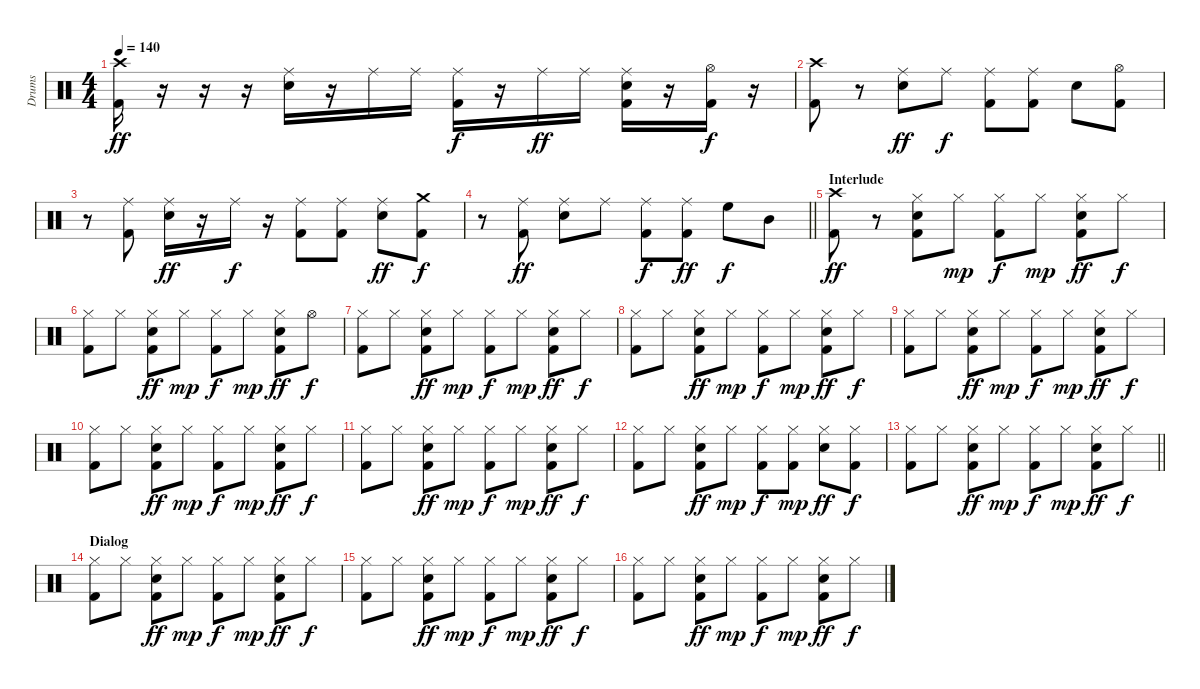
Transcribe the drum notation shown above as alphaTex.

\track ("Drums" "Drums") {instrument percussion}
\staff {score}
\articulation defaults
\ts (4 4)
\tempo 140
\clef neutral
\ks c
("Crash high (hit)" "Kick (hit) 2").16{dy ff} r.16 r.16 r.16 ("Ride (middle)" "Electric Snare (hit)").16 r.16 "Ride (middle)".16 "Ride (middle)".16 ("Ride (middle)" "Kick (hit) 2").16{dy f} r.16 "Ride (middle)".16{dy ff} "Ride (middle)".16 ("Ride (middle)" "Electric Snare (hit)" "Kick (hit) 2").16 r.16 ("Hi-Hat (open)" "Kick (hit) 2").16{dy f} r.16 |
("Crash high (hit)" "Kick (hit) 2").8 r.8 ("Ride (middle)" "Electric Snare (hit)").8{dy ff} "Ride (middle)".8{dy f} ("Ride (middle)" "Kick (hit) 2").8 ("Ride (middle)" "Kick (hit) 2").8 "Electric Snare (hit)".8 ("Hi-Hat (open)" "Kick (hit) 2").8 |
r.8 ("Ride (middle)" "Kick (hit) 2").8 ("Ride (middle)" "Electric Snare (hit)").16{dy ff} r.16 "Ride (middle)".16{dy f} r.16 ("Ride (middle)" "Kick (hit) 2").8 ("Ride (middle)" "Kick (hit) 2").8 ("Ride (middle)" "Electric Snare (hit)").8{dy ff} ("Crash medium (hit)" "Kick (hit) 2").8{dy f} |
\barLineRight lightlight
r.8 ("Ride (middle)" "Kick (hit) 2").8{dy ff} ("Ride (middle)" "Electric Snare (hit)").8 "Ride (middle)".8 ("Ride (middle)" "Kick (hit) 2").8{dy f} ("Ride (middle)" "Kick (hit) 2").8{dy ff} "High Floor Tom (hit)".8{dy f} "Mid Tom (hit)".8 |
\section ("" "Interlude")
("Crash high (hit)" "Kick (hit) 2").8{dy ff} r.8 ("Hi-Hat (closed)" "Electric Snare (hit)" "Kick (hit) 2").8 "Hi-Hat (closed)".8{dy mp} ("Hi-Hat (closed)" "Kick (hit) 2").8{dy f} "Hi-Hat (closed)".8{dy mp} ("Hi-Hat (closed)" "Electric Snare (hit)" "Kick (hit) 2").8{dy ff} "Hi-Hat (closed)".8{dy f} |
("Hi-Hat (closed)" "Kick (hit) 2").8 "Hi-Hat (closed)".8 ("Hi-Hat (closed)" "Electric Snare (hit)" "Kick (hit) 2").8{dy ff} "Hi-Hat (closed)".8{dy mp} ("Hi-Hat (closed)" "Kick (hit) 2").8{dy f} "Hi-Hat (closed)".8{dy mp} ("Hi-Hat (closed)" "Electric Snare (hit)" "Kick (hit) 2").8{dy ff} "Hi-Hat (open)".8{dy f} |
("Hi-Hat (closed)" "Kick (hit) 2").8 "Hi-Hat (closed)".8 ("Hi-Hat (closed)" "Electric Snare (hit)" "Kick (hit) 2").8{dy ff} "Hi-Hat (closed)".8{dy mp} ("Hi-Hat (closed)" "Kick (hit) 2").8{dy f} "Hi-Hat (closed)".8{dy mp} ("Hi-Hat (closed)" "Electric Snare (hit)" "Kick (hit) 2").8{dy ff} "Hi-Hat (closed)".8{dy f} |
("Hi-Hat (closed)" "Kick (hit) 2").8 "Hi-Hat (closed)".8 ("Hi-Hat (closed)" "Electric Snare (hit)" "Kick (hit) 2").8{dy ff} "Hi-Hat (closed)".8{dy mp} ("Hi-Hat (closed)" "Kick (hit) 2").8{dy f} "Hi-Hat (closed)".8{dy mp} ("Hi-Hat (closed)" "Electric Snare (hit)" "Kick (hit) 2").8{dy ff} "Hi-Hat (closed)".8{dy f} |
("Hi-Hat (closed)" "Kick (hit) 2").8 "Hi-Hat (closed)".8 ("Hi-Hat (closed)" "Electric Snare (hit)" "Kick (hit) 2").8{dy ff} "Hi-Hat (closed)".8{dy mp} ("Hi-Hat (closed)" "Kick (hit) 2").8{dy f} "Hi-Hat (closed)".8{dy mp} ("Hi-Hat (closed)" "Electric Snare (hit)" "Kick (hit) 2").8{dy ff} "Hi-Hat (closed)".8{dy f} |
("Hi-Hat (closed)" "Kick (hit) 2").8 "Hi-Hat (closed)".8 ("Hi-Hat (closed)" "Electric Snare (hit)" "Kick (hit) 2").8{dy ff} "Hi-Hat (closed)".8{dy mp} ("Hi-Hat (closed)" "Kick (hit) 2").8{dy f} "Hi-Hat (closed)".8{dy mp} ("Hi-Hat (closed)" "Electric Snare (hit)" "Kick (hit) 2").8{dy ff} "Hi-Hat (closed)".8{dy f} |
("Hi-Hat (closed)" "Kick (hit) 2").8 "Hi-Hat (closed)".8 ("Hi-Hat (closed)" "Electric Snare (hit)" "Kick (hit) 2").8{dy ff} "Hi-Hat (closed)".8{dy mp} ("Hi-Hat (closed)" "Kick (hit) 2").8{dy f} "Hi-Hat (closed)".8{dy mp} ("Hi-Hat (closed)" "Electric Snare (hit)" "Kick (hit) 2").8{dy ff} "Hi-Hat (closed)".8{dy f} |
("Hi-Hat (closed)" "Kick (hit) 2").8 "Hi-Hat (closed)".8 ("Hi-Hat (closed)" "Electric Snare (hit)" "Kick (hit) 2").8{dy ff} "Hi-Hat (closed)".8{dy mp} ("Hi-Hat (closed)" "Kick (hit) 2").8{dy f} ("Hi-Hat (closed)" "Kick (hit) 2").8{dy mp} ("Hi-Hat (closed)" "Electric Snare (hit)").8{dy ff} ("Hi-Hat (closed)" "Kick (hit) 2").8{dy f} |
\barLineRight lightlight
("Hi-Hat (closed)" "Kick (hit) 2").8 "Hi-Hat (closed)".8 ("Hi-Hat (closed)" "Electric Snare (hit)" "Kick (hit) 2").8{dy ff} "Hi-Hat (closed)".8{dy mp} ("Hi-Hat (closed)" "Kick (hit) 2").8{dy f} "Hi-Hat (closed)".8{dy mp} ("Hi-Hat (closed)" "Electric Snare (hit)" "Kick (hit) 2").8{dy ff} "Hi-Hat (closed)".8{dy f} |
\section ("" "Dialog")
("Hi-Hat (closed)" "Kick (hit) 2").8 "Hi-Hat (closed)".8 ("Hi-Hat (closed)" "Electric Snare (hit)" "Kick (hit) 2").8{dy ff} "Hi-Hat (closed)".8{dy mp} ("Hi-Hat (closed)" "Kick (hit) 2").8{dy f} "Hi-Hat (closed)".8{dy mp} ("Hi-Hat (closed)" "Electric Snare (hit)" "Kick (hit) 2").8{dy ff} "Hi-Hat (closed)".8{dy f} |
("Hi-Hat (closed)" "Kick (hit) 2").8 "Hi-Hat (closed)".8 ("Hi-Hat (closed)" "Electric Snare (hit)" "Kick (hit) 2").8{dy ff} "Hi-Hat (closed)".8{dy mp} ("Hi-Hat (closed)" "Kick (hit) 2").8{dy f} "Hi-Hat (closed)".8{dy mp} ("Hi-Hat (closed)" "Electric Snare (hit)" "Kick (hit) 2").8{dy ff} "Hi-Hat (closed)".8{dy f} |
("Hi-Hat (closed)" "Kick (hit) 2").8 "Hi-Hat (closed)".8 ("Hi-Hat (closed)" "Electric Snare (hit)" "Kick (hit) 2").8{dy ff} "Hi-Hat (closed)".8{dy mp} ("Hi-Hat (closed)" "Kick (hit) 2").8{dy f} "Hi-Hat (closed)".8{dy mp} ("Hi-Hat (closed)" "Electric Snare (hit)" "Kick (hit) 2").8{dy ff} "Hi-Hat (closed)".8{dy f}
